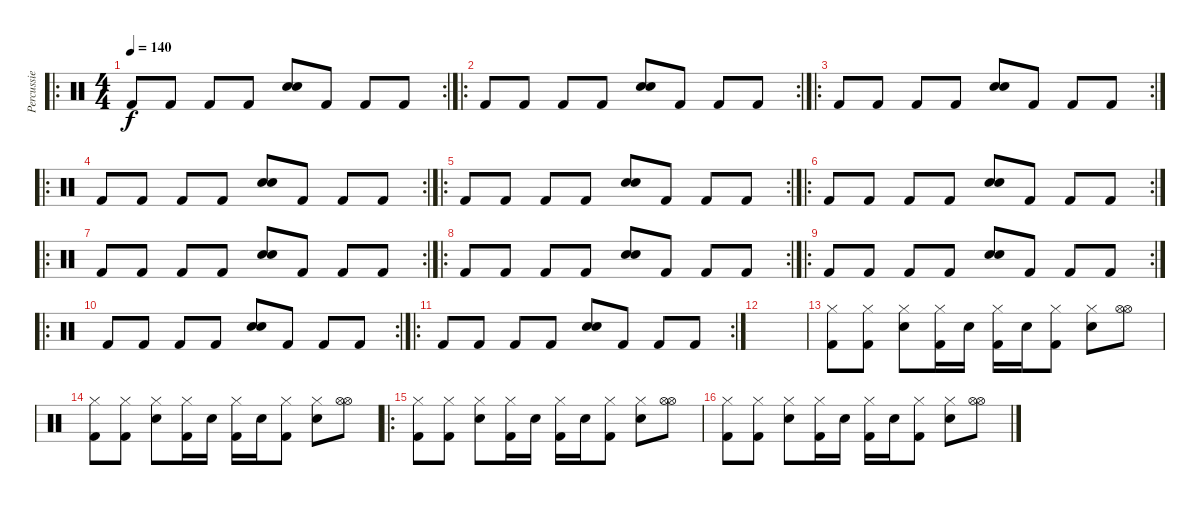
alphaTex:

\track ("Percussie" "Percussie") {instrument percussion}
\staff {score}
\articulation defaults
\ro
\rc 2
\ts (4 4)
\tempo 140
\clef neutral
\ks c "Kick (hit) 2".8{dy f} "Kick (hit) 2".8 "Kick (hit) 2".8 "Kick (hit) 2".8
("Snare (hit) 2" "Snare (hit) 2").8{bd 480} "Kick (hit) 2".8 "Kick (hit) 2".8 "Kick (hit) 2".8 |
\ro
\rc 2 "Kick (hit) 2".8 "Kick (hit) 2".8 "Kick (hit) 2".8 "Kick (hit) 2".8
("Snare (hit) 2" "Snare (hit) 2").8{bd 480} "Kick (hit) 2".8 "Kick (hit) 2".8 "Kick (hit) 2".8 |
\ro
\rc 2 "Kick (hit) 2".8 "Kick (hit) 2".8 "Kick (hit) 2".8 "Kick (hit) 2".8
("Snare (hit) 2" "Snare (hit) 2").8{bd 480} "Kick (hit) 2".8 "Kick (hit) 2".8 "Kick (hit) 2".8 |
\ro
\rc 2 "Kick (hit) 2".8 "Kick (hit) 2".8 "Kick (hit) 2".8 "Kick (hit) 2".8
("Snare (hit) 2" "Snare (hit) 2").8{bd 480} "Kick (hit) 2".8 "Kick (hit) 2".8 "Kick (hit) 2".8 |
\ro
\rc 2 "Kick (hit) 2".8 "Kick (hit) 2".8 "Kick (hit) 2".8 "Kick (hit) 2".8
("Snare (hit) 2" "Snare (hit) 2").8{bd 480} "Kick (hit) 2".8 "Kick (hit) 2".8 "Kick (hit) 2".8 |
\ro
\rc 2 "Kick (hit) 2".8 "Kick (hit) 2".8 "Kick (hit) 2".8 "Kick (hit) 2".8
("Snare (hit) 2" "Snare (hit) 2").8{bd 480} "Kick (hit) 2".8 "Kick (hit) 2".8 "Kick (hit) 2".8 |
\ro
\rc 2 "Kick (hit) 2".8 "Kick (hit) 2".8 "Kick (hit) 2".8 "Kick (hit) 2".8
("Snare (hit) 2" "Snare (hit) 2").8{bd 480} "Kick (hit) 2".8 "Kick (hit) 2".8 "Kick (hit) 2".8 |
\ro
\rc 2 "Kick (hit) 2".8 "Kick (hit) 2".8 "Kick (hit) 2".8 "Kick (hit) 2".8
("Snare (hit) 2" "Snare (hit) 2").8{bd 480} "Kick (hit) 2".8 "Kick (hit) 2".8 "Kick (hit) 2".8 |
\ro
\rc 2 "Kick (hit) 2".8 "Kick (hit) 2".8 "Kick (hit) 2".8 "Kick (hit) 2".8
("Snare (hit) 2" "Snare (hit) 2").8{bd 480} "Kick (hit) 2".8 "Kick (hit) 2".8 "Kick (hit) 2".8 |
\ro
\rc 2 "Kick (hit) 2".8 "Kick (hit) 2".8 "Kick (hit) 2".8 "Kick (hit) 2".8
("Snare (hit) 2" "Snare (hit) 2").8{bd 480} "Kick (hit) 2".8 "Kick (hit) 2".8 "Kick (hit) 2".8 |
\ro
\rc 2 "Kick (hit) 2".8 "Kick (hit) 2".8 "Kick (hit) 2".8 "Kick (hit) 2".8
("Snare (hit) 2" "Snare (hit) 2").8{bd 480} "Kick (hit) 2".8 "Kick (hit) 2".8 "Kick (hit) 2".8 |
|
("Hi-Hat (closed)" "Kick (hit) 2").8 ("Hi-Hat (closed)" "Kick (hit) 2").8 ("Hi-Hat (closed)" "Snare (hit) 2").8 ("Hi-Hat (closed)" "Kick (hit) 2").16 "Snare (hit) 2".16 ("Hi-Hat (closed)" "Kick (hit) 2").16 "Snare (hit) 2".16 ("Hi-Hat (closed)" "Kick (hit) 2").8 ("Hi-Hat (closed)" "Snare (hit) 2").8 ("Hi-Hat (open)" "Hi-Hat (open)").8 |
("Hi-Hat (closed)" "Kick (hit) 2").8 ("Hi-Hat (closed)" "Kick (hit) 2").8 ("Hi-Hat (closed)" "Snare (hit) 2").8 ("Hi-Hat (closed)" "Kick (hit) 2").16 "Snare (hit) 2".16 ("Hi-Hat (closed)" "Kick (hit) 2").16 "Snare (hit) 2".16 ("Hi-Hat (closed)" "Kick (hit) 2").8 ("Hi-Hat (closed)" "Snare (hit) 2").8 ("Hi-Hat (open)" "Hi-Hat (open)").8 |
\ro
("Hi-Hat (closed)" "Kick (hit) 2").8 ("Hi-Hat (closed)" "Kick (hit) 2").8 ("Hi-Hat (closed)" "Snare (hit) 2").8 ("Hi-Hat (closed)" "Kick (hit) 2").16 "Snare (hit) 2".16 ("Hi-Hat (closed)" "Kick (hit) 2").16 "Snare (hit) 2".16 ("Hi-Hat (closed)" "Kick (hit) 2").8 ("Hi-Hat (closed)" "Snare (hit) 2").8 ("Hi-Hat (open)" "Hi-Hat (open)").8 |
("Hi-Hat (closed)" "Kick (hit) 2").8 ("Hi-Hat (closed)" "Kick (hit) 2").8 ("Hi-Hat (closed)" "Snare (hit) 2").8 ("Hi-Hat (closed)" "Kick (hit) 2").16 "Snare (hit) 2".16 ("Hi-Hat (closed)" "Kick (hit) 2").16 "Snare (hit) 2".16 ("Hi-Hat (closed)" "Kick (hit) 2").8 ("Hi-Hat (closed)" "Snare (hit) 2").8 ("Hi-Hat (open)" "Hi-Hat (open)").8
